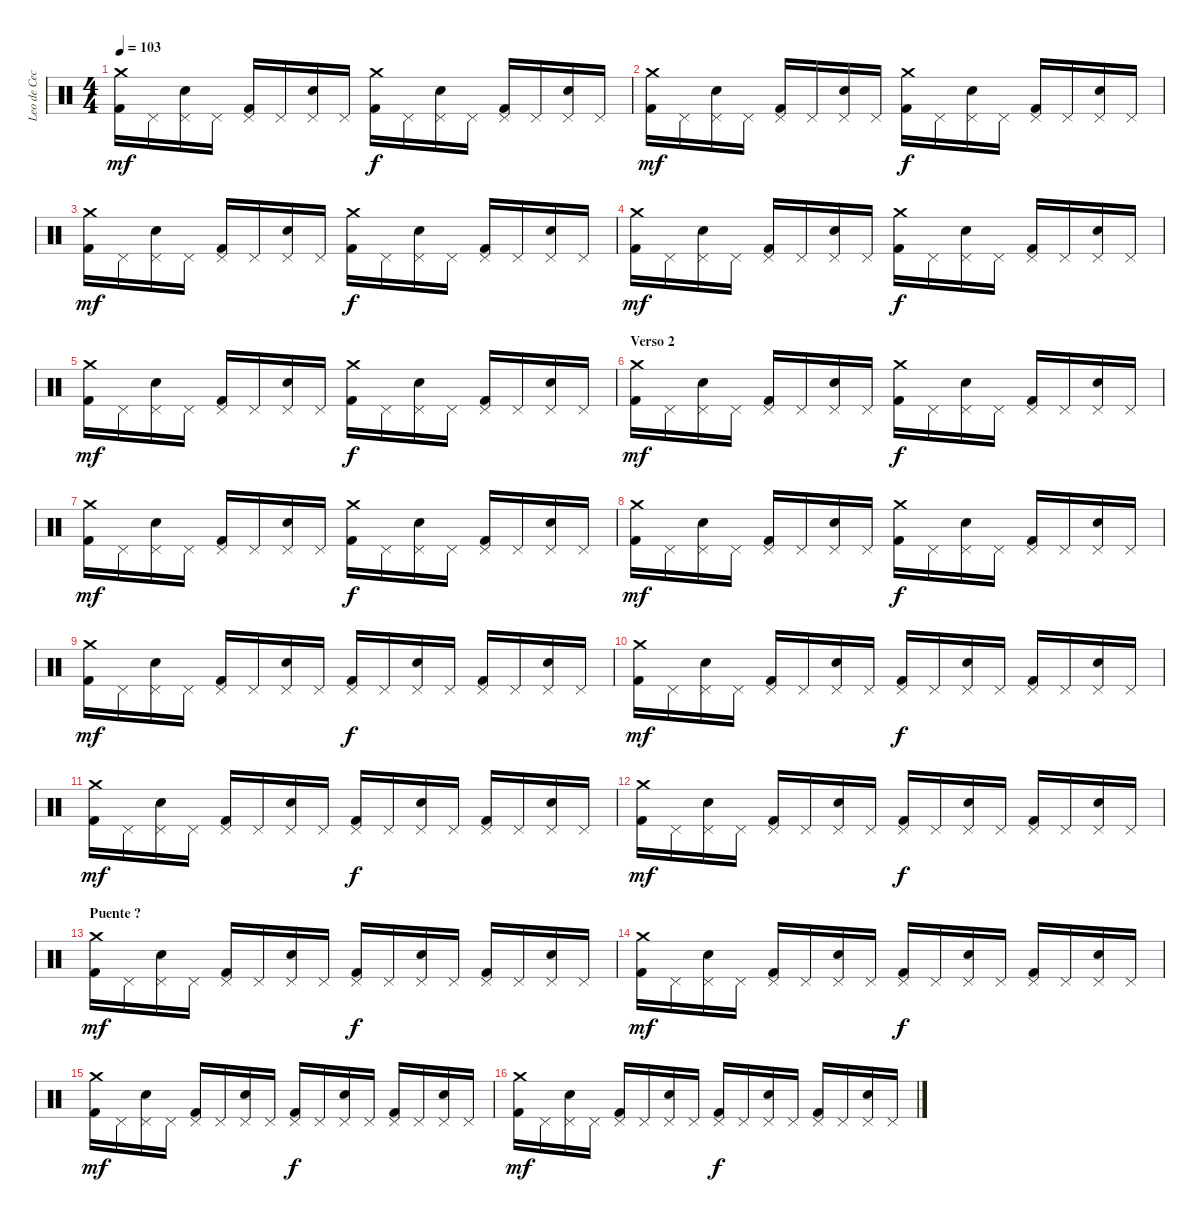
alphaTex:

\track ("Leo de Cecco" "Leo de Cec") {instrument percussion}
\staff {score}
\articulation defaults
\ts (4 4)
\tempo 103
\clef neutral
\ks c
("Crash medium (hit)" "Kick (hit) 2").16{dy mf} "Pedal Hi-Hat (hit)".16 ("Pedal Hi-Hat (hit)" "Snare (hit) 2").16 "Pedal Hi-Hat (hit)".16 ("Pedal Hi-Hat (hit)" "Kick (hit) 2").16 "Pedal Hi-Hat (hit)".16 ("Pedal Hi-Hat (hit)" "Snare (hit) 2").16 "Pedal Hi-Hat (hit)".16 ("Crash medium (hit)" "Kick (hit) 2").16{dy f} "Pedal Hi-Hat (hit)".16 ("Pedal Hi-Hat (hit)" "Snare (hit) 2").16 "Pedal Hi-Hat (hit)".16 ("Pedal Hi-Hat (hit)" "Kick (hit) 2").16 "Pedal Hi-Hat (hit)".16 ("Pedal Hi-Hat (hit)" "Snare (hit) 2").16 "Pedal Hi-Hat (hit)".16 |
("Crash medium (hit)" "Kick (hit) 2").16{dy mf} "Pedal Hi-Hat (hit)".16 ("Pedal Hi-Hat (hit)" "Snare (hit) 2").16 "Pedal Hi-Hat (hit)".16 ("Pedal Hi-Hat (hit)" "Kick (hit) 2").16 "Pedal Hi-Hat (hit)".16 ("Pedal Hi-Hat (hit)" "Snare (hit) 2").16 "Pedal Hi-Hat (hit)".16 ("Crash medium (hit)" "Kick (hit) 2").16{dy f} "Pedal Hi-Hat (hit)".16 ("Pedal Hi-Hat (hit)" "Snare (hit) 2").16 "Pedal Hi-Hat (hit)".16 ("Pedal Hi-Hat (hit)" "Kick (hit) 2").16 "Pedal Hi-Hat (hit)".16 ("Pedal Hi-Hat (hit)" "Snare (hit) 2").16 "Pedal Hi-Hat (hit)".16 |
("Crash medium (hit)" "Kick (hit) 2").16{dy mf} "Pedal Hi-Hat (hit)".16 ("Pedal Hi-Hat (hit)" "Snare (hit) 2").16 "Pedal Hi-Hat (hit)".16 ("Pedal Hi-Hat (hit)" "Kick (hit) 2").16 "Pedal Hi-Hat (hit)".16 ("Pedal Hi-Hat (hit)" "Snare (hit) 2").16 "Pedal Hi-Hat (hit)".16 ("Crash medium (hit)" "Kick (hit) 2").16{dy f} "Pedal Hi-Hat (hit)".16 ("Pedal Hi-Hat (hit)" "Snare (hit) 2").16 "Pedal Hi-Hat (hit)".16 ("Pedal Hi-Hat (hit)" "Kick (hit) 2").16 "Pedal Hi-Hat (hit)".16 ("Pedal Hi-Hat (hit)" "Snare (hit) 2").16 "Pedal Hi-Hat (hit)".16 |
("Crash medium (hit)" "Kick (hit) 2").16{dy mf} "Pedal Hi-Hat (hit)".16 ("Pedal Hi-Hat (hit)" "Snare (hit) 2").16 "Pedal Hi-Hat (hit)".16 ("Pedal Hi-Hat (hit)" "Kick (hit) 2").16 "Pedal Hi-Hat (hit)".16 ("Pedal Hi-Hat (hit)" "Snare (hit) 2").16 "Pedal Hi-Hat (hit)".16 ("Crash medium (hit)" "Kick (hit) 2").16{dy f} "Pedal Hi-Hat (hit)".16 ("Pedal Hi-Hat (hit)" "Snare (hit) 2").16 "Pedal Hi-Hat (hit)".16 ("Pedal Hi-Hat (hit)" "Kick (hit) 2").16 "Pedal Hi-Hat (hit)".16 ("Pedal Hi-Hat (hit)" "Snare (hit) 2").16 "Pedal Hi-Hat (hit)".16 |
("Crash medium (hit)" "Kick (hit) 2").16{dy mf} "Pedal Hi-Hat (hit)".16 ("Pedal Hi-Hat (hit)" "Snare (hit) 2").16 "Pedal Hi-Hat (hit)".16 ("Pedal Hi-Hat (hit)" "Kick (hit) 2").16 "Pedal Hi-Hat (hit)".16 ("Pedal Hi-Hat (hit)" "Snare (hit) 2").16 "Pedal Hi-Hat (hit)".16 ("Crash medium (hit)" "Kick (hit) 2").16{dy f} "Pedal Hi-Hat (hit)".16 ("Pedal Hi-Hat (hit)" "Snare (hit) 2").16 "Pedal Hi-Hat (hit)".16 ("Pedal Hi-Hat (hit)" "Kick (hit) 2").16 "Pedal Hi-Hat (hit)".16 ("Pedal Hi-Hat (hit)" "Snare (hit) 2").16 "Pedal Hi-Hat (hit)".16 |
\section ("" "Verso 2")
("Crash medium (hit)" "Kick (hit) 2").16{dy mf} "Pedal Hi-Hat (hit)".16 ("Pedal Hi-Hat (hit)" "Snare (hit) 2").16 "Pedal Hi-Hat (hit)".16 ("Pedal Hi-Hat (hit)" "Kick (hit) 2").16 "Pedal Hi-Hat (hit)".16 ("Pedal Hi-Hat (hit)" "Snare (hit) 2").16 "Pedal Hi-Hat (hit)".16 ("Crash medium (hit)" "Kick (hit) 2").16{dy f} "Pedal Hi-Hat (hit)".16 ("Pedal Hi-Hat (hit)" "Snare (hit) 2").16 "Pedal Hi-Hat (hit)".16 ("Pedal Hi-Hat (hit)" "Kick (hit) 2").16 "Pedal Hi-Hat (hit)".16 ("Pedal Hi-Hat (hit)" "Snare (hit) 2").16 "Pedal Hi-Hat (hit)".16 |
("Crash medium (hit)" "Kick (hit) 2").16{dy mf} "Pedal Hi-Hat (hit)".16 ("Pedal Hi-Hat (hit)" "Snare (hit) 2").16 "Pedal Hi-Hat (hit)".16 ("Pedal Hi-Hat (hit)" "Kick (hit) 2").16 "Pedal Hi-Hat (hit)".16 ("Pedal Hi-Hat (hit)" "Snare (hit) 2").16 "Pedal Hi-Hat (hit)".16 ("Crash medium (hit)" "Kick (hit) 2").16{dy f} "Pedal Hi-Hat (hit)".16 ("Pedal Hi-Hat (hit)" "Snare (hit) 2").16 "Pedal Hi-Hat (hit)".16 ("Pedal Hi-Hat (hit)" "Kick (hit) 2").16 "Pedal Hi-Hat (hit)".16 ("Pedal Hi-Hat (hit)" "Snare (hit) 2").16 "Pedal Hi-Hat (hit)".16 |
("Crash medium (hit)" "Kick (hit) 2").16{dy mf} "Pedal Hi-Hat (hit)".16 ("Pedal Hi-Hat (hit)" "Snare (hit) 2").16 "Pedal Hi-Hat (hit)".16 ("Pedal Hi-Hat (hit)" "Kick (hit) 2").16 "Pedal Hi-Hat (hit)".16 ("Pedal Hi-Hat (hit)" "Snare (hit) 2").16 "Pedal Hi-Hat (hit)".16 ("Crash medium (hit)" "Kick (hit) 2").16{dy f} "Pedal Hi-Hat (hit)".16 ("Pedal Hi-Hat (hit)" "Snare (hit) 2").16 "Pedal Hi-Hat (hit)".16 ("Pedal Hi-Hat (hit)" "Kick (hit) 2").16 "Pedal Hi-Hat (hit)".16 ("Pedal Hi-Hat (hit)" "Snare (hit) 2").16 "Pedal Hi-Hat (hit)".16 |
("Crash medium (hit)" "Kick (hit) 2").16{dy mf} "Pedal Hi-Hat (hit)".16 ("Pedal Hi-Hat (hit)" "Snare (hit) 2").16 "Pedal Hi-Hat (hit)".16 ("Pedal Hi-Hat (hit)" "Kick (hit) 2").16 "Pedal Hi-Hat (hit)".16 ("Pedal Hi-Hat (hit)" "Snare (hit) 2").16 "Pedal Hi-Hat (hit)".16 ("Pedal Hi-Hat (hit)" "Kick (hit) 2").16{dy f} "Pedal Hi-Hat (hit)".16 ("Pedal Hi-Hat (hit)" "Snare (hit) 2").16 "Pedal Hi-Hat (hit)".16 ("Pedal Hi-Hat (hit)" "Kick (hit) 2").16 "Pedal Hi-Hat (hit)".16 ("Pedal Hi-Hat (hit)" "Snare (hit) 2").16 "Pedal Hi-Hat (hit)".16 |
("Crash medium (hit)" "Kick (hit) 2").16{dy mf} "Pedal Hi-Hat (hit)".16 ("Pedal Hi-Hat (hit)" "Snare (hit) 2").16 "Pedal Hi-Hat (hit)".16 ("Pedal Hi-Hat (hit)" "Kick (hit) 2").16 "Pedal Hi-Hat (hit)".16 ("Pedal Hi-Hat (hit)" "Snare (hit) 2").16 "Pedal Hi-Hat (hit)".16 ("Pedal Hi-Hat (hit)" "Kick (hit) 2").16{dy f} "Pedal Hi-Hat (hit)".16 ("Pedal Hi-Hat (hit)" "Snare (hit) 2").16 "Pedal Hi-Hat (hit)".16 ("Pedal Hi-Hat (hit)" "Kick (hit) 2").16 "Pedal Hi-Hat (hit)".16 ("Pedal Hi-Hat (hit)" "Snare (hit) 2").16 "Pedal Hi-Hat (hit)".16 |
("Crash medium (hit)" "Kick (hit) 2").16{dy mf} "Pedal Hi-Hat (hit)".16 ("Pedal Hi-Hat (hit)" "Snare (hit) 2").16 "Pedal Hi-Hat (hit)".16 ("Pedal Hi-Hat (hit)" "Kick (hit) 2").16 "Pedal Hi-Hat (hit)".16 ("Pedal Hi-Hat (hit)" "Snare (hit) 2").16 "Pedal Hi-Hat (hit)".16 ("Pedal Hi-Hat (hit)" "Kick (hit) 2").16{dy f} "Pedal Hi-Hat (hit)".16 ("Pedal Hi-Hat (hit)" "Snare (hit) 2").16 "Pedal Hi-Hat (hit)".16 ("Pedal Hi-Hat (hit)" "Kick (hit) 2").16 "Pedal Hi-Hat (hit)".16 ("Pedal Hi-Hat (hit)" "Snare (hit) 2").16 "Pedal Hi-Hat (hit)".16 |
("Crash medium (hit)" "Kick (hit) 2").16{dy mf} "Pedal Hi-Hat (hit)".16 ("Pedal Hi-Hat (hit)" "Snare (hit) 2").16 "Pedal Hi-Hat (hit)".16 ("Pedal Hi-Hat (hit)" "Kick (hit) 2").16 "Pedal Hi-Hat (hit)".16 ("Pedal Hi-Hat (hit)" "Snare (hit) 2").16 "Pedal Hi-Hat (hit)".16 ("Pedal Hi-Hat (hit)" "Kick (hit) 2").16{dy f} "Pedal Hi-Hat (hit)".16 ("Pedal Hi-Hat (hit)" "Snare (hit) 2").16 "Pedal Hi-Hat (hit)".16 ("Pedal Hi-Hat (hit)" "Kick (hit) 2").16 "Pedal Hi-Hat (hit)".16 ("Pedal Hi-Hat (hit)" "Snare (hit) 2").16 "Pedal Hi-Hat (hit)".16 |
\section ("" "Puente ?")
("Crash medium (hit)" "Kick (hit) 2").16{dy mf} "Pedal Hi-Hat (hit)".16 ("Pedal Hi-Hat (hit)" "Snare (hit) 2").16 "Pedal Hi-Hat (hit)".16 ("Pedal Hi-Hat (hit)" "Kick (hit) 2").16 "Pedal Hi-Hat (hit)".16 ("Pedal Hi-Hat (hit)" "Snare (hit) 2").16 "Pedal Hi-Hat (hit)".16 ("Pedal Hi-Hat (hit)" "Kick (hit) 2").16{dy f} "Pedal Hi-Hat (hit)".16 ("Pedal Hi-Hat (hit)" "Snare (hit) 2").16 "Pedal Hi-Hat (hit)".16 ("Pedal Hi-Hat (hit)" "Kick (hit) 2").16 "Pedal Hi-Hat (hit)".16 ("Pedal Hi-Hat (hit)" "Snare (hit) 2").16 "Pedal Hi-Hat (hit)".16 |
("Crash medium (hit)" "Kick (hit) 2").16{dy mf} "Pedal Hi-Hat (hit)".16 ("Pedal Hi-Hat (hit)" "Snare (hit) 2").16 "Pedal Hi-Hat (hit)".16 ("Pedal Hi-Hat (hit)" "Kick (hit) 2").16 "Pedal Hi-Hat (hit)".16 ("Pedal Hi-Hat (hit)" "Snare (hit) 2").16 "Pedal Hi-Hat (hit)".16 ("Pedal Hi-Hat (hit)" "Kick (hit) 2").16{dy f} "Pedal Hi-Hat (hit)".16 ("Pedal Hi-Hat (hit)" "Snare (hit) 2").16 "Pedal Hi-Hat (hit)".16 ("Pedal Hi-Hat (hit)" "Kick (hit) 2").16 "Pedal Hi-Hat (hit)".16 ("Pedal Hi-Hat (hit)" "Snare (hit) 2").16 "Pedal Hi-Hat (hit)".16 |
("Crash medium (hit)" "Kick (hit) 2").16{dy mf} "Pedal Hi-Hat (hit)".16 ("Pedal Hi-Hat (hit)" "Snare (hit) 2").16 "Pedal Hi-Hat (hit)".16 ("Pedal Hi-Hat (hit)" "Kick (hit) 2").16 "Pedal Hi-Hat (hit)".16 ("Pedal Hi-Hat (hit)" "Snare (hit) 2").16 "Pedal Hi-Hat (hit)".16 ("Pedal Hi-Hat (hit)" "Kick (hit) 2").16{dy f} "Pedal Hi-Hat (hit)".16 ("Pedal Hi-Hat (hit)" "Snare (hit) 2").16 "Pedal Hi-Hat (hit)".16 ("Pedal Hi-Hat (hit)" "Kick (hit) 2").16 "Pedal Hi-Hat (hit)".16 ("Pedal Hi-Hat (hit)" "Snare (hit) 2").16 "Pedal Hi-Hat (hit)".16 |
("Crash medium (hit)" "Kick (hit) 2").16{dy mf} "Pedal Hi-Hat (hit)".16 ("Pedal Hi-Hat (hit)" "Snare (hit) 2").16 "Pedal Hi-Hat (hit)".16 ("Pedal Hi-Hat (hit)" "Kick (hit) 2").16 "Pedal Hi-Hat (hit)".16 ("Pedal Hi-Hat (hit)" "Snare (hit) 2").16 "Pedal Hi-Hat (hit)".16 ("Pedal Hi-Hat (hit)" "Kick (hit) 2").16{dy f} "Pedal Hi-Hat (hit)".16 ("Pedal Hi-Hat (hit)" "Snare (hit) 2").16 "Pedal Hi-Hat (hit)".16 ("Pedal Hi-Hat (hit)" "Kick (hit) 2").16 "Pedal Hi-Hat (hit)".16 ("Pedal Hi-Hat (hit)" "Snare (hit) 2").16 "Pedal Hi-Hat (hit)".16
